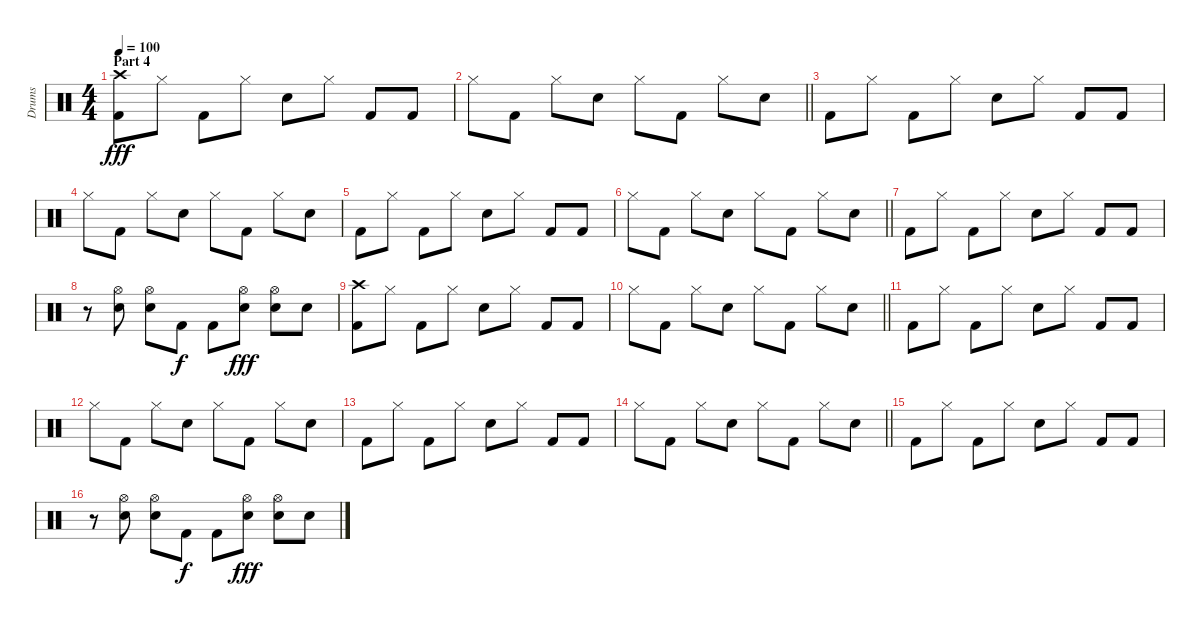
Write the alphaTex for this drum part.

\track ("Drums" "Drums") {instrument percussion}
\staff {score}
\articulation defaults
\ts (4 4)
\section ("" "Part 4")
\tempo 100
\clef neutral
\ks c
("Crash high (hit)" "Kick (hit) 2").8{dy fff} "Hi-Hat (closed)".8 "Kick (hit) 2".8 "Hi-Hat (closed)".8 "Electric Snare (hit)".8 "Hi-Hat (closed)".8 "Kick (hit) 2".8 "Kick (hit) 2".8 |
\barLineRight lightlight "Hi-Hat (closed)".8 "Kick (hit) 2".8 "Hi-Hat (closed)".8 "Electric Snare (hit)".8 "Hi-Hat (closed)".8 "Kick (hit) 2".8 "Hi-Hat (closed)".8 "Electric Snare (hit)".8
|
"Kick (hit) 2".8 "Hi-Hat (closed)".8 "Kick (hit) 2".8 "Hi-Hat (closed)".8 "Electric Snare (hit)".8 "Hi-Hat (closed)".8 "Kick (hit) 2".8 "Kick (hit) 2".8 |
"Hi-Hat (closed)".8 "Kick (hit) 2".8 "Hi-Hat (closed)".8 "Electric Snare (hit)".8 "Hi-Hat (closed)".8 "Kick (hit) 2".8 "Hi-Hat (closed)".8 "Electric Snare (hit)".8 |
"Kick (hit) 2".8 "Hi-Hat (closed)".8 "Kick (hit) 2".8 "Hi-Hat (closed)".8 "Electric Snare (hit)".8 "Hi-Hat (closed)".8 "Kick (hit) 2".8 "Kick (hit) 2".8 |
\barLineRight lightlight "Hi-Hat (closed)".8 "Kick (hit) 2".8 "Hi-Hat (closed)".8 "Electric Snare (hit)".8 "Hi-Hat (closed)".8 "Kick (hit) 2".8 "Hi-Hat (closed)".8 "Electric Snare (hit)".8
|
"Kick (hit) 2".8 "Hi-Hat (closed)".8 "Kick (hit) 2".8 "Hi-Hat (closed)".8 "Electric Snare (hit)".8 "Hi-Hat (closed)".8 "Kick (hit) 2".8 "Kick (hit) 2".8 |
r.8 ("Hi-Hat (open)" "Electric Snare (hit)").8 ("Hi-Hat (open)" "Electric Snare (hit)").8 "Kick (hit) 2".8{dy f} "Kick (hit) 2".8 ("Hi-Hat (open)" "Electric Snare (hit)").8{dy fff} ("Hi-Hat (open)" "Electric Snare (hit)").8 "Electric Snare (hit)".8 |
("Crash high (hit)" "Kick (hit) 2").8 "Hi-Hat (closed)".8 "Kick (hit) 2".8 "Hi-Hat (closed)".8 "Electric Snare (hit)".8 "Hi-Hat (closed)".8 "Kick (hit) 2".8 "Kick (hit) 2".8 |
\barLineRight lightlight "Hi-Hat (closed)".8 "Kick (hit) 2".8 "Hi-Hat (closed)".8 "Electric Snare (hit)".8 "Hi-Hat (closed)".8 "Kick (hit) 2".8 "Hi-Hat (closed)".8 "Electric Snare (hit)".8
|
"Kick (hit) 2".8 "Hi-Hat (closed)".8 "Kick (hit) 2".8 "Hi-Hat (closed)".8 "Electric Snare (hit)".8 "Hi-Hat (closed)".8 "Kick (hit) 2".8 "Kick (hit) 2".8 |
"Hi-Hat (closed)".8 "Kick (hit) 2".8 "Hi-Hat (closed)".8 "Electric Snare (hit)".8 "Hi-Hat (closed)".8 "Kick (hit) 2".8 "Hi-Hat (closed)".8 "Electric Snare (hit)".8 |
"Kick (hit) 2".8 "Hi-Hat (closed)".8 "Kick (hit) 2".8 "Hi-Hat (closed)".8 "Electric Snare (hit)".8 "Hi-Hat (closed)".8 "Kick (hit) 2".8 "Kick (hit) 2".8 |
\barLineRight lightlight "Hi-Hat (closed)".8 "Kick (hit) 2".8 "Hi-Hat (closed)".8 "Electric Snare (hit)".8 "Hi-Hat (closed)".8 "Kick (hit) 2".8 "Hi-Hat (closed)".8 "Electric Snare (hit)".8
|
"Kick (hit) 2".8 "Hi-Hat (closed)".8 "Kick (hit) 2".8 "Hi-Hat (closed)".8 "Electric Snare (hit)".8 "Hi-Hat (closed)".8 "Kick (hit) 2".8 "Kick (hit) 2".8 |
r.8 ("Hi-Hat (open)" "Electric Snare (hit)").8 ("Hi-Hat (open)" "Electric Snare (hit)").8 "Kick (hit) 2".8{dy f} "Kick (hit) 2".8 ("Hi-Hat (open)" "Electric Snare (hit)").8{dy fff} ("Hi-Hat (open)" "Electric Snare (hit)").8 "Electric Snare (hit)".8
